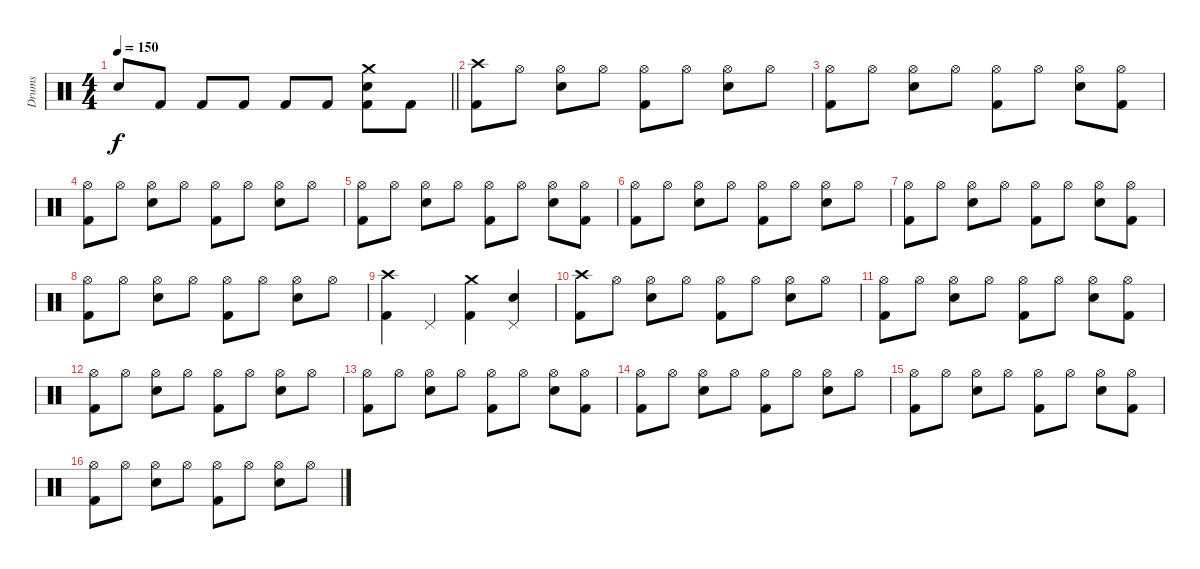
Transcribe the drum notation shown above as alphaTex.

\track ("Drums" "Drums") {instrument percussion}
\staff {score}
\articulation defaults
\ts (4 4)
\tempo 150
\clef neutral
\barLineRight lightlight
\ks c "Snare (hit) 2".8{dy f} "Kick (hit) 2".8 "Kick (hit) 2".8 "Kick (hit) 2".8 "Kick (hit) 2".8 "Kick (hit) 2".8
("Crash medium (hit)" "Snare (hit) 2" "Kick (hit) 2").8 "Kick (hit) 2".8 |
("Crash high (hit)" "Kick (hit) 2").8 "Hi-Hat (open)".8 ("Hi-Hat (open)" "Snare (hit) 2").8 "Hi-Hat (open)".8 ("Hi-Hat (open)" "Kick (hit) 2").8 "Hi-Hat (open)".8 ("Hi-Hat (open)" "Snare (hit) 2").8 "Hi-Hat (open)".8 |
("Hi-Hat (open)" "Kick (hit) 2").8 "Hi-Hat (open)".8 ("Hi-Hat (open)" "Snare (hit) 2").8 "Hi-Hat (open)".8 ("Hi-Hat (open)" "Kick (hit) 2").8 "Hi-Hat (open)".8 ("Hi-Hat (open)" "Snare (hit) 2").8 ("Hi-Hat (open)" "Kick (hit) 2").8 |
("Hi-Hat (open)" "Kick (hit) 2").8 "Hi-Hat (open)".8 ("Hi-Hat (open)" "Snare (hit) 2").8 "Hi-Hat (open)".8 ("Hi-Hat (open)" "Kick (hit) 2").8 "Hi-Hat (open)".8 ("Hi-Hat (open)" "Snare (hit) 2").8 "Hi-Hat (open)".8 |
("Hi-Hat (open)" "Kick (hit) 2").8 "Hi-Hat (open)".8 ("Hi-Hat (open)" "Snare (hit) 2").8 "Hi-Hat (open)".8 ("Hi-Hat (open)" "Kick (hit) 2").8 "Hi-Hat (open)".8 ("Hi-Hat (open)" "Snare (hit) 2").8 ("Hi-Hat (open)" "Kick (hit) 2").8 |
("Hi-Hat (open)" "Kick (hit) 2").8 "Hi-Hat (open)".8 ("Hi-Hat (open)" "Snare (hit) 2").8 "Hi-Hat (open)".8 ("Hi-Hat (open)" "Kick (hit) 2").8 "Hi-Hat (open)".8 ("Hi-Hat (open)" "Snare (hit) 2").8 "Hi-Hat (open)".8 |
("Hi-Hat (open)" "Kick (hit) 2").8 "Hi-Hat (open)".8 ("Hi-Hat (open)" "Snare (hit) 2").8 "Hi-Hat (open)".8 ("Hi-Hat (open)" "Kick (hit) 2").8 "Hi-Hat (open)".8 ("Hi-Hat (open)" "Snare (hit) 2").8 ("Hi-Hat (open)" "Kick (hit) 2").8 |
("Hi-Hat (open)" "Kick (hit) 2").8 "Hi-Hat (open)".8 ("Hi-Hat (open)" "Snare (hit) 2").8 "Hi-Hat (open)".8 ("Hi-Hat (open)" "Kick (hit) 2").8 "Hi-Hat (open)".8 ("Hi-Hat (open)" "Snare (hit) 2").8 "Hi-Hat (open)".8 |
("Crash high (hit)" "Kick (hit) 2").4 "Pedal Hi-Hat (hit)".4 ("Crash medium (hit)" "Kick (hit) 2").4 ("Pedal Hi-Hat (hit)" "Snare (hit) 2").4 |
("Crash high (hit)" "Kick (hit) 2").8 "Hi-Hat (open)".8 ("Hi-Hat (open)" "Snare (hit) 2").8 "Hi-Hat (open)".8 ("Hi-Hat (open)" "Kick (hit) 2").8 "Hi-Hat (open)".8 ("Hi-Hat (open)" "Snare (hit) 2").8 "Hi-Hat (open)".8 |
("Hi-Hat (open)" "Kick (hit) 2").8 "Hi-Hat (open)".8 ("Hi-Hat (open)" "Snare (hit) 2").8 "Hi-Hat (open)".8 ("Hi-Hat (open)" "Kick (hit) 2").8 "Hi-Hat (open)".8 ("Hi-Hat (open)" "Snare (hit) 2").8 ("Hi-Hat (open)" "Kick (hit) 2").8 |
("Hi-Hat (open)" "Kick (hit) 2").8 "Hi-Hat (open)".8 ("Hi-Hat (open)" "Snare (hit) 2").8 "Hi-Hat (open)".8 ("Hi-Hat (open)" "Kick (hit) 2").8 "Hi-Hat (open)".8 ("Hi-Hat (open)" "Snare (hit) 2").8 "Hi-Hat (open)".8 |
("Hi-Hat (open)" "Kick (hit) 2").8 "Hi-Hat (open)".8 ("Hi-Hat (open)" "Snare (hit) 2").8 "Hi-Hat (open)".8 ("Hi-Hat (open)" "Kick (hit) 2").8 "Hi-Hat (open)".8 ("Hi-Hat (open)" "Snare (hit) 2").8 ("Hi-Hat (open)" "Kick (hit) 2").8 |
("Hi-Hat (open)" "Kick (hit) 2").8 "Hi-Hat (open)".8 ("Hi-Hat (open)" "Snare (hit) 2").8 "Hi-Hat (open)".8 ("Hi-Hat (open)" "Kick (hit) 2").8 "Hi-Hat (open)".8 ("Hi-Hat (open)" "Snare (hit) 2").8 "Hi-Hat (open)".8 |
("Hi-Hat (open)" "Kick (hit) 2").8 "Hi-Hat (open)".8 ("Hi-Hat (open)" "Snare (hit) 2").8 "Hi-Hat (open)".8 ("Hi-Hat (open)" "Kick (hit) 2").8 "Hi-Hat (open)".8 ("Hi-Hat (open)" "Snare (hit) 2").8 ("Hi-Hat (open)" "Kick (hit) 2").8 |
("Hi-Hat (open)" "Kick (hit) 2").8 "Hi-Hat (open)".8 ("Hi-Hat (open)" "Snare (hit) 2").8 "Hi-Hat (open)".8 ("Hi-Hat (open)" "Kick (hit) 2").8 "Hi-Hat (open)".8 ("Hi-Hat (open)" "Snare (hit) 2").8 "Hi-Hat (open)".8
